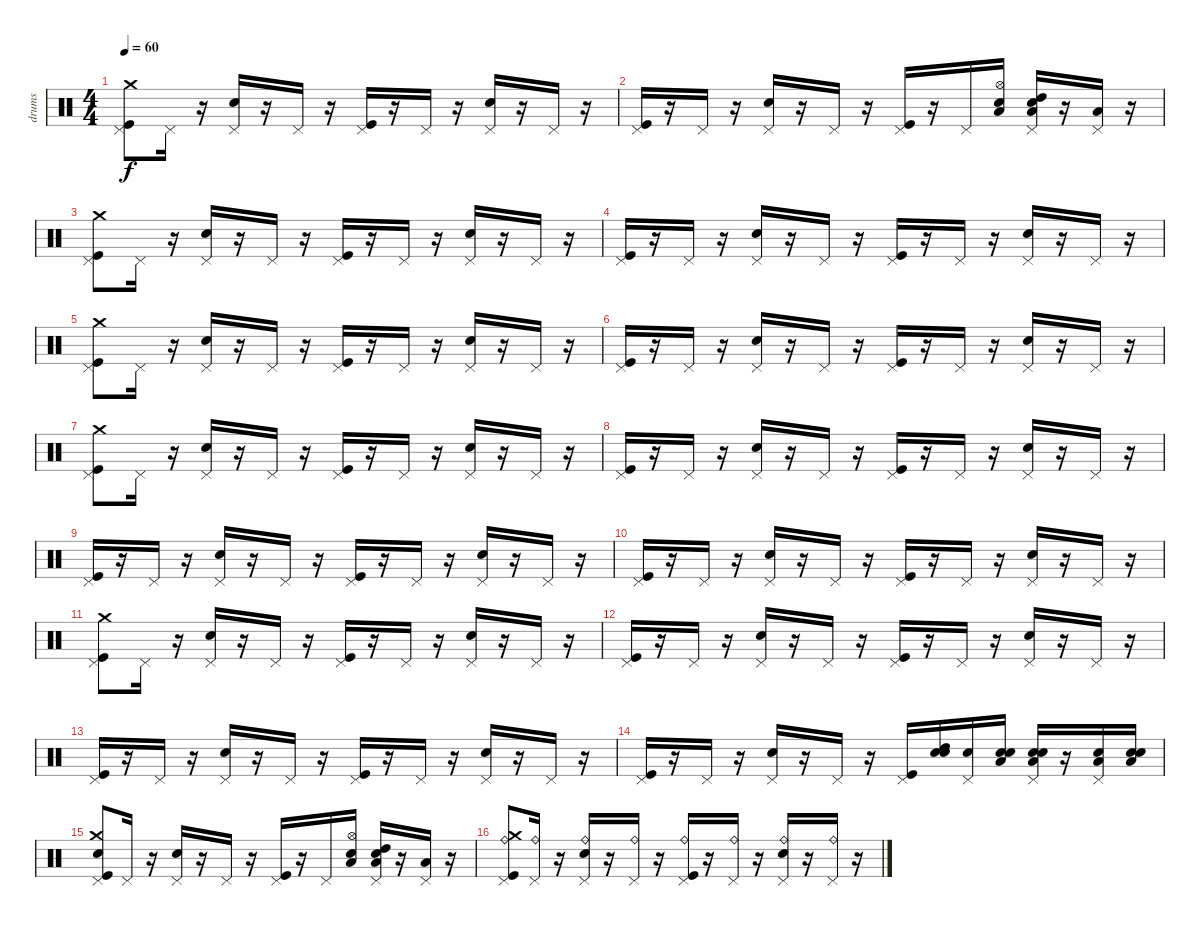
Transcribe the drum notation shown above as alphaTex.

\track ("drums" "drums") {instrument percussion}
\staff {score}
\articulation defaults
\ts (4 4)
\tempo 60
\clef neutral
\ks c
("Kick (hit)" "Pedal Hi-Hat (hit)" "Crash medium (hit)").8{dy f} "Pedal Hi-Hat (hit)".16 r.16 ("Snare (hit) 2" "Pedal Hi-Hat (hit)").16 r.16 "Pedal Hi-Hat (hit)".16 r.16 ("Kick (hit)" "Pedal Hi-Hat (hit)").16 r.16 "Pedal Hi-Hat (hit)".16 r.16 ("Snare (hit) 2" "Pedal Hi-Hat (hit)").16 r.16 "Pedal Hi-Hat (hit)".16 r.16 |
("Kick (hit)" "Pedal Hi-Hat (hit)").16 r.16 "Pedal Hi-Hat (hit)".16 r.16 ("Snare (hit) 2" "Pedal Hi-Hat (hit)").16 r.16 "Pedal Hi-Hat (hit)".16 r.16 ("Kick (hit)" "Pedal Hi-Hat (hit)").16 r.16 "Pedal Hi-Hat (hit)".16 ("Snare (hit)" "Hi-Hat (open)" "Low Tom (hit)").16 ("Snare (hit)" "Pedal Hi-Hat (hit)" "High Tom (hit)" "Low Tom (hit)").16 r.16 ("Pedal Hi-Hat (hit)" "Low Floor Tom (hit)").16 r.16 |
("Kick (hit)" "Pedal Hi-Hat (hit)" "Crash medium (hit)").8 "Pedal Hi-Hat (hit)".16 r.16 ("Snare (hit) 2" "Pedal Hi-Hat (hit)").16 r.16 "Pedal Hi-Hat (hit)".16 r.16 ("Kick (hit)" "Pedal Hi-Hat (hit)").16 r.16 "Pedal Hi-Hat (hit)".16 r.16 ("Snare (hit) 2" "Pedal Hi-Hat (hit)").16 r.16 "Pedal Hi-Hat (hit)".16 r.16 |
("Kick (hit)" "Pedal Hi-Hat (hit)").16 r.16 "Pedal Hi-Hat (hit)".16 r.16 ("Snare (hit) 2" "Pedal Hi-Hat (hit)").16 r.16 "Pedal Hi-Hat (hit)".16 r.16 ("Kick (hit)" "Pedal Hi-Hat (hit)").16 r.16 "Pedal Hi-Hat (hit)".16 r.16 ("Snare (hit) 2" "Pedal Hi-Hat (hit)").16 r.16 "Pedal Hi-Hat (hit)".16 r.16 |
("Kick (hit)" "Pedal Hi-Hat (hit)" "Crash medium (hit)").8 "Pedal Hi-Hat (hit)".16 r.16 ("Snare (hit) 2" "Pedal Hi-Hat (hit)").16 r.16 "Pedal Hi-Hat (hit)".16 r.16 ("Kick (hit)" "Pedal Hi-Hat (hit)").16 r.16 "Pedal Hi-Hat (hit)".16 r.16 ("Snare (hit) 2" "Pedal Hi-Hat (hit)").16 r.16 "Pedal Hi-Hat (hit)".16 r.16 |
("Kick (hit)" "Pedal Hi-Hat (hit)").16 r.16 "Pedal Hi-Hat (hit)".16 r.16 ("Snare (hit) 2" "Pedal Hi-Hat (hit)").16 r.16 "Pedal Hi-Hat (hit)".16 r.16 ("Kick (hit)" "Pedal Hi-Hat (hit)").16 r.16 "Pedal Hi-Hat (hit)".16 r.16 ("Snare (hit) 2" "Pedal Hi-Hat (hit)").16 r.16 "Pedal Hi-Hat (hit)".16 r.16 |
("Kick (hit)" "Pedal Hi-Hat (hit)" "Crash medium (hit)").8 "Pedal Hi-Hat (hit)".16 r.16 ("Snare (hit) 2" "Pedal Hi-Hat (hit)").16 r.16 "Pedal Hi-Hat (hit)".16 r.16 ("Kick (hit)" "Pedal Hi-Hat (hit)").16 r.16 "Pedal Hi-Hat (hit)".16 r.16 ("Snare (hit) 2" "Pedal Hi-Hat (hit)").16 r.16 "Pedal Hi-Hat (hit)".16 r.16 |
("Kick (hit)" "Pedal Hi-Hat (hit)").16 r.16 "Pedal Hi-Hat (hit)".16 r.16 ("Snare (hit) 2" "Pedal Hi-Hat (hit)").16 r.16 "Pedal Hi-Hat (hit)".16 r.16 ("Kick (hit)" "Pedal Hi-Hat (hit)").16 r.16 "Pedal Hi-Hat (hit)".16 r.16 ("Snare (hit) 2" "Pedal Hi-Hat (hit)").16 r.16 "Pedal Hi-Hat (hit)".16 r.16 |
("Kick (hit)" "Pedal Hi-Hat (hit)").16 r.16 "Pedal Hi-Hat (hit)".16 r.16 ("Snare (hit) 2" "Pedal Hi-Hat (hit)").16 r.16 "Pedal Hi-Hat (hit)".16 r.16 ("Kick (hit)" "Pedal Hi-Hat (hit)").16 r.16 "Pedal Hi-Hat (hit)".16 r.16 ("Snare (hit) 2" "Pedal Hi-Hat (hit)").16 r.16 "Pedal Hi-Hat (hit)".16 r.16 |
("Kick (hit)" "Pedal Hi-Hat (hit)").16 r.16 "Pedal Hi-Hat (hit)".16 r.16 ("Snare (hit) 2" "Pedal Hi-Hat (hit)").16 r.16 "Pedal Hi-Hat (hit)".16 r.16 ("Kick (hit)" "Pedal Hi-Hat (hit)").16 r.16 "Pedal Hi-Hat (hit)".16 r.16 ("Snare (hit) 2" "Pedal Hi-Hat (hit)").16 r.16 "Pedal Hi-Hat (hit)".16 r.16 |
("Kick (hit)" "Pedal Hi-Hat (hit)" "Crash medium (hit)").8 "Pedal Hi-Hat (hit)".16 r.16 ("Snare (hit) 2" "Pedal Hi-Hat (hit)").16 r.16 "Pedal Hi-Hat (hit)".16 r.16 ("Kick (hit)" "Pedal Hi-Hat (hit)").16 r.16 "Pedal Hi-Hat (hit)".16 r.16 ("Snare (hit) 2" "Pedal Hi-Hat (hit)").16 r.16 "Pedal Hi-Hat (hit)".16 r.16 |
("Kick (hit)" "Pedal Hi-Hat (hit)").16 r.16 "Pedal Hi-Hat (hit)".16 r.16 ("Snare (hit) 2" "Pedal Hi-Hat (hit)").16 r.16 "Pedal Hi-Hat (hit)".16 r.16 ("Kick (hit)" "Pedal Hi-Hat (hit)").16 r.16 "Pedal Hi-Hat (hit)".16 r.16 ("Snare (hit) 2" "Pedal Hi-Hat (hit)").16 r.16 "Pedal Hi-Hat (hit)".16 r.16 |
("Kick (hit)" "Pedal Hi-Hat (hit)").16 r.16 "Pedal Hi-Hat (hit)".16 r.16 ("Snare (hit) 2" "Pedal Hi-Hat (hit)").16 r.16 "Pedal Hi-Hat (hit)".16 r.16 ("Kick (hit)" "Pedal Hi-Hat (hit)").16 r.16 "Pedal Hi-Hat (hit)".16 r.16 ("Snare (hit) 2" "Pedal Hi-Hat (hit)").16 r.16 "Pedal Hi-Hat (hit)".16 r.16 |
("Kick (hit)" "Pedal Hi-Hat (hit)").16 r.16 "Pedal Hi-Hat (hit)".16 r.16 ("Snare (hit) 2" "Pedal Hi-Hat (hit)").16 r.16 "Pedal Hi-Hat (hit)".16 r.16 ("Kick (hit)" "Pedal Hi-Hat (hit)").16 ("Snare (hit)" "Snare (hit) 2" "High Tom (hit)").16 ("Snare (hit)" "Pedal Hi-Hat (hit)").16 ("Snare (hit)" "Snare (hit) 2" "Low Floor Tom (hit)").16 ("Snare (hit)" "Snare (hit) 2" "Pedal Hi-Hat (hit)" "Low Tom (hit)").16 r.16 ("Snare (hit) 2" "Pedal Hi-Hat (hit)" "Low Tom (hit)").16 ("Snare (hit)" "Snare (hit) 2" "Low Floor Tom (hit)").16 |
("Snare (hit)" "Kick (hit)" "Pedal Hi-Hat (hit)" "Crash medium (hit)").8 "Pedal Hi-Hat (hit)".16 r.16 ("Snare (hit) 2" "Pedal Hi-Hat (hit)").16 r.16 "Pedal Hi-Hat (hit)".16 r.16 ("Kick (hit)" "Pedal Hi-Hat (hit)").16 r.16 "Pedal Hi-Hat (hit)".16 ("Snare (hit)" "Hi-Hat (open)" "Low Tom (hit)").16 ("Snare (hit)" "Pedal Hi-Hat (hit)" "High Tom (hit)" "Low Tom (hit)").16 r.16 ("Pedal Hi-Hat (hit)" "Low Floor Tom (hit)").16 r.16 |
("Kick (hit)" "Pedal Hi-Hat (hit)" "Ride (bell)" "Crash medium (hit)").8 ("Pedal Hi-Hat (hit)" "Ride (bell)").16 r.16 ("Snare (hit) 2" "Pedal Hi-Hat (hit)" "Ride (bell)").16 r.16 ("Pedal Hi-Hat (hit)" "Ride (bell)").16 r.16 ("Kick (hit)" "Pedal Hi-Hat (hit)" "Ride (bell)").16 r.16 ("Pedal Hi-Hat (hit)" "Ride (bell)").16 r.16 ("Snare (hit) 2" "Pedal Hi-Hat (hit)" "Ride (bell)").16 r.16 ("Pedal Hi-Hat (hit)" "Ride (bell)").16 r.16
